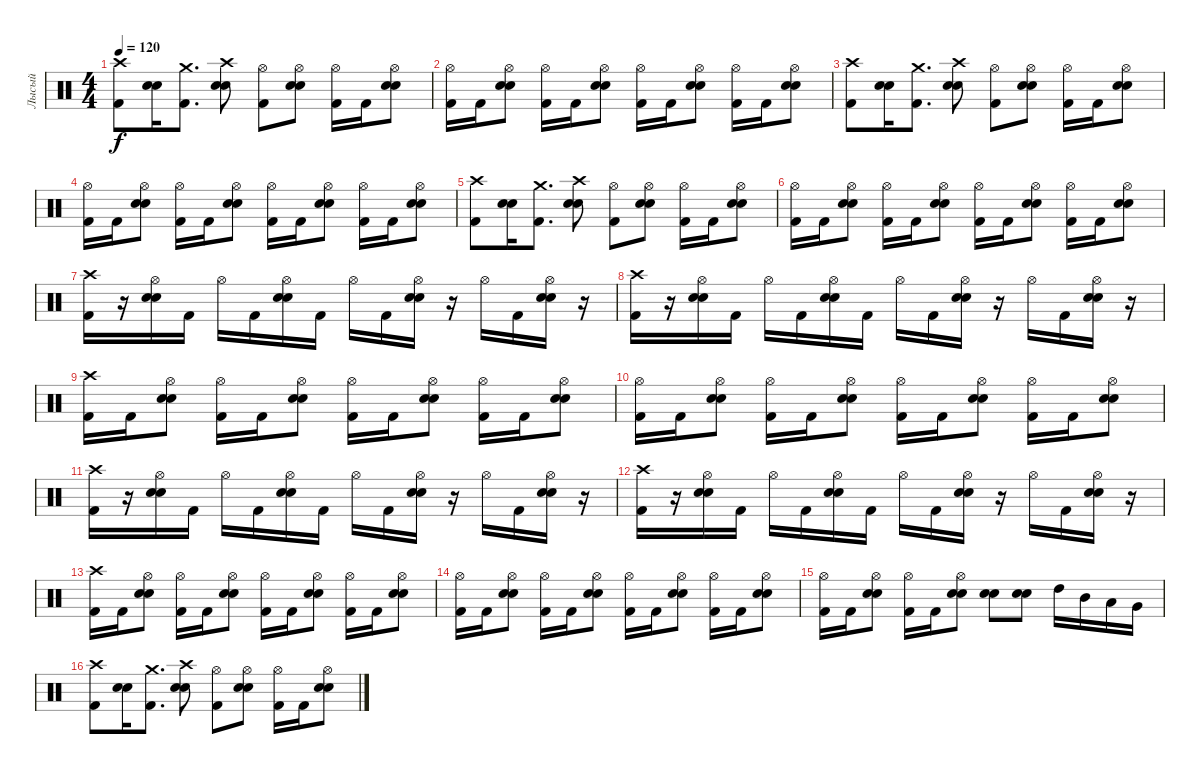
\track ("Лысый" "Лысый") {instrument percussion}
\staff {score}
\articulation defaults
\ts (4 4)
\tempo 120
\clef neutral
\ks c
("Kick (hit) 2" "Crash high (hit)").8{dy f} ("Snare (hit) 2" "Electric Snare (hit)").16 ("Kick (hit) 2" "Crash medium (hit)").8{d} ("Snare (hit) 2" "Electric Snare (hit)" "Crash high (hit)").8 ("Kick (hit) 2" "Hi-Hat (open)").8 ("Snare (hit) 2" "Electric Snare (hit)" "Hi-Hat (open)").8 ("Hi-Hat (open)" "Kick (hit) 2").16 "Kick (hit) 2".16 ("Snare (hit) 2" "Electric Snare (hit)" "Hi-Hat (open)").8 |
("Hi-Hat (open)" "Kick (hit) 2").16 "Kick (hit) 2".16 ("Snare (hit) 2" "Electric Snare (hit)" "Hi-Hat (open)").8 ("Hi-Hat (open)" "Kick (hit) 2").16 "Kick (hit) 2".16 ("Snare (hit) 2" "Electric Snare (hit)" "Hi-Hat (open)").8 ("Hi-Hat (open)" "Kick (hit) 2").16 "Kick (hit) 2".16 ("Snare (hit) 2" "Electric Snare (hit)" "Hi-Hat (open)").8 ("Hi-Hat (open)" "Kick (hit) 2").16 "Kick (hit) 2".16 ("Snare (hit) 2" "Electric Snare (hit)" "Hi-Hat (open)").8 |
("Kick (hit) 2" "Crash high (hit)").8 ("Snare (hit) 2" "Electric Snare (hit)").16 ("Kick (hit) 2" "Crash medium (hit)").8{d} ("Snare (hit) 2" "Electric Snare (hit)" "Crash high (hit)").8 ("Kick (hit) 2" "Hi-Hat (open)").8 ("Snare (hit) 2" "Electric Snare (hit)" "Hi-Hat (open)").8 ("Hi-Hat (open)" "Kick (hit) 2").16 "Kick (hit) 2".16 ("Snare (hit) 2" "Electric Snare (hit)" "Hi-Hat (open)").8 |
("Hi-Hat (open)" "Kick (hit) 2").16 "Kick (hit) 2".16 ("Snare (hit) 2" "Electric Snare (hit)" "Hi-Hat (open)").8 ("Hi-Hat (open)" "Kick (hit) 2").16 "Kick (hit) 2".16 ("Snare (hit) 2" "Electric Snare (hit)" "Hi-Hat (open)").8 ("Hi-Hat (open)" "Kick (hit) 2").16 "Kick (hit) 2".16 ("Snare (hit) 2" "Electric Snare (hit)" "Hi-Hat (open)").8 ("Hi-Hat (open)" "Kick (hit) 2").16 "Kick (hit) 2".16 ("Snare (hit) 2" "Electric Snare (hit)" "Hi-Hat (open)").8 |
("Kick (hit) 2" "Crash high (hit)").8 ("Snare (hit) 2" "Electric Snare (hit)").16 ("Kick (hit) 2" "Crash medium (hit)").8{d} ("Snare (hit) 2" "Electric Snare (hit)" "Crash high (hit)").8 ("Kick (hit) 2" "Hi-Hat (open)").8 ("Snare (hit) 2" "Electric Snare (hit)" "Hi-Hat (open)").8 ("Hi-Hat (open)" "Kick (hit) 2").16 "Kick (hit) 2".16 ("Snare (hit) 2" "Electric Snare (hit)" "Hi-Hat (open)").8 |
("Hi-Hat (open)" "Kick (hit) 2").16 "Kick (hit) 2".16 ("Snare (hit) 2" "Electric Snare (hit)" "Hi-Hat (open)").8 ("Hi-Hat (open)" "Kick (hit) 2").16 "Kick (hit) 2".16 ("Snare (hit) 2" "Electric Snare (hit)" "Hi-Hat (open)").8 ("Hi-Hat (open)" "Kick (hit) 2").16 "Kick (hit) 2".16 ("Snare (hit) 2" "Electric Snare (hit)" "Hi-Hat (open)").8 ("Hi-Hat (open)" "Kick (hit) 2").16 "Kick (hit) 2".16 ("Snare (hit) 2" "Electric Snare (hit)" "Hi-Hat (open)").8 |
("Kick (hit) 2" "Crash high (hit)").16 r.16 ("Snare (hit) 2" "Electric Snare (hit)" "Hi-Hat (open)").16 "Kick (hit) 2".16 "Hi-Hat (open)".16 "Kick (hit) 2".16 ("Snare (hit) 2" "Electric Snare (hit)" "Hi-Hat (open)").16 "Kick (hit) 2".16 "Hi-Hat (open)".16 "Kick (hit) 2".16 ("Snare (hit) 2" "Electric Snare (hit)" "Hi-Hat (open)").16 r.16 "Hi-Hat (open)".16 "Kick (hit) 2".16 ("Snare (hit) 2" "Electric Snare (hit)" "Hi-Hat (open)").16 r.16 |
("Kick (hit) 2" "Crash high (hit)").16 r.16 ("Snare (hit) 2" "Electric Snare (hit)" "Hi-Hat (open)").16 "Kick (hit) 2".16 "Hi-Hat (open)".16 "Kick (hit) 2".16 ("Snare (hit) 2" "Electric Snare (hit)" "Hi-Hat (open)").16 "Kick (hit) 2".16 "Hi-Hat (open)".16 "Kick (hit) 2".16 ("Snare (hit) 2" "Electric Snare (hit)" "Hi-Hat (open)").16 r.16 "Hi-Hat (open)".16 "Kick (hit) 2".16 ("Snare (hit) 2" "Electric Snare (hit)" "Hi-Hat (open)").16 r.16 |
("Kick (hit) 2" "Crash high (hit)").16 "Kick (hit) 2".16 ("Snare (hit) 2" "Electric Snare (hit)" "Hi-Hat (open)").8 ("Hi-Hat (open)" "Kick (hit) 2").16 "Kick (hit) 2".16 ("Snare (hit) 2" "Electric Snare (hit)" "Hi-Hat (open)").8 ("Hi-Hat (open)" "Kick (hit) 2").16 "Kick (hit) 2".16 ("Snare (hit) 2" "Electric Snare (hit)" "Hi-Hat (open)").8 ("Hi-Hat (open)" "Kick (hit) 2").16 "Kick (hit) 2".16 ("Snare (hit) 2" "Electric Snare (hit)" "Hi-Hat (open)").8 |
("Hi-Hat (open)" "Kick (hit) 2").16 "Kick (hit) 2".16 ("Snare (hit) 2" "Electric Snare (hit)" "Hi-Hat (open)").8 ("Hi-Hat (open)" "Kick (hit) 2").16 "Kick (hit) 2".16 ("Snare (hit) 2" "Electric Snare (hit)" "Hi-Hat (open)").8 ("Hi-Hat (open)" "Kick (hit) 2").16 "Kick (hit) 2".16 ("Snare (hit) 2" "Electric Snare (hit)" "Hi-Hat (open)").8 ("Hi-Hat (open)" "Kick (hit) 2").16 "Kick (hit) 2".16 ("Snare (hit) 2" "Electric Snare (hit)" "Hi-Hat (open)").8 |
("Kick (hit) 2" "Crash high (hit)").16 r.16 ("Snare (hit) 2" "Electric Snare (hit)" "Hi-Hat (open)").16 "Kick (hit) 2".16 "Hi-Hat (open)".16 "Kick (hit) 2".16 ("Snare (hit) 2" "Electric Snare (hit)" "Hi-Hat (open)").16 "Kick (hit) 2".16 "Hi-Hat (open)".16 "Kick (hit) 2".16 ("Snare (hit) 2" "Electric Snare (hit)" "Hi-Hat (open)").16 r.16 "Hi-Hat (open)".16 "Kick (hit) 2".16 ("Snare (hit) 2" "Electric Snare (hit)" "Hi-Hat (open)").16 r.16 |
("Kick (hit) 2" "Crash high (hit)").16 r.16 ("Snare (hit) 2" "Electric Snare (hit)" "Hi-Hat (open)").16 "Kick (hit) 2".16 "Hi-Hat (open)".16 "Kick (hit) 2".16 ("Snare (hit) 2" "Electric Snare (hit)" "Hi-Hat (open)").16 "Kick (hit) 2".16 "Hi-Hat (open)".16 "Kick (hit) 2".16 ("Snare (hit) 2" "Electric Snare (hit)" "Hi-Hat (open)").16 r.16 "Hi-Hat (open)".16 "Kick (hit) 2".16 ("Snare (hit) 2" "Electric Snare (hit)" "Hi-Hat (open)").16 r.16 |
("Kick (hit) 2" "Crash high (hit)").16 "Kick (hit) 2".16 ("Snare (hit) 2" "Electric Snare (hit)" "Hi-Hat (open)").8 ("Hi-Hat (open)" "Kick (hit) 2").16 "Kick (hit) 2".16 ("Snare (hit) 2" "Electric Snare (hit)" "Hi-Hat (open)").8 ("Hi-Hat (open)" "Kick (hit) 2").16 "Kick (hit) 2".16 ("Snare (hit) 2" "Electric Snare (hit)" "Hi-Hat (open)").8 ("Hi-Hat (open)" "Kick (hit) 2").16 "Kick (hit) 2".16 ("Snare (hit) 2" "Electric Snare (hit)" "Hi-Hat (open)").8 |
("Hi-Hat (open)" "Kick (hit) 2").16 "Kick (hit) 2".16 ("Snare (hit) 2" "Electric Snare (hit)" "Hi-Hat (open)").8 ("Hi-Hat (open)" "Kick (hit) 2").16 "Kick (hit) 2".16 ("Snare (hit) 2" "Electric Snare (hit)" "Hi-Hat (open)").8 ("Hi-Hat (open)" "Kick (hit) 2").16 "Kick (hit) 2".16 ("Snare (hit) 2" "Electric Snare (hit)" "Hi-Hat (open)").8 ("Hi-Hat (open)" "Kick (hit) 2").16 "Kick (hit) 2".16 ("Snare (hit) 2" "Electric Snare (hit)" "Hi-Hat (open)").8 |
("Hi-Hat (open)" "Kick (hit) 2").16 "Kick (hit) 2".16 ("Snare (hit) 2" "Electric Snare (hit)" "Hi-Hat (open)").8 ("Hi-Hat (open)" "Kick (hit) 2").16 "Kick (hit) 2".16 ("Snare (hit) 2" "Electric Snare (hit)" "Hi-Hat (open)").8 ("Snare (hit) 2" "Electric Snare (hit)").8 ("Snare (hit) 2" "Electric Snare (hit)").8 "High Tom (hit)".16 "Mid Tom (hit)".16 "Low Tom (hit)".16 "Very Low Tom (hit)".16 |
("Kick (hit) 2" "Crash high (hit)").8 ("Snare (hit) 2" "Electric Snare (hit)").16 ("Kick (hit) 2" "Crash medium (hit)").8{d} ("Snare (hit) 2" "Electric Snare (hit)" "Crash high (hit)").8 ("Kick (hit) 2" "Hi-Hat (open)").8 ("Snare (hit) 2" "Electric Snare (hit)" "Hi-Hat (open)").8 ("Hi-Hat (open)" "Kick (hit) 2").16 "Kick (hit) 2".16 ("Snare (hit) 2" "Electric Snare (hit)" "Hi-Hat (open)").8
